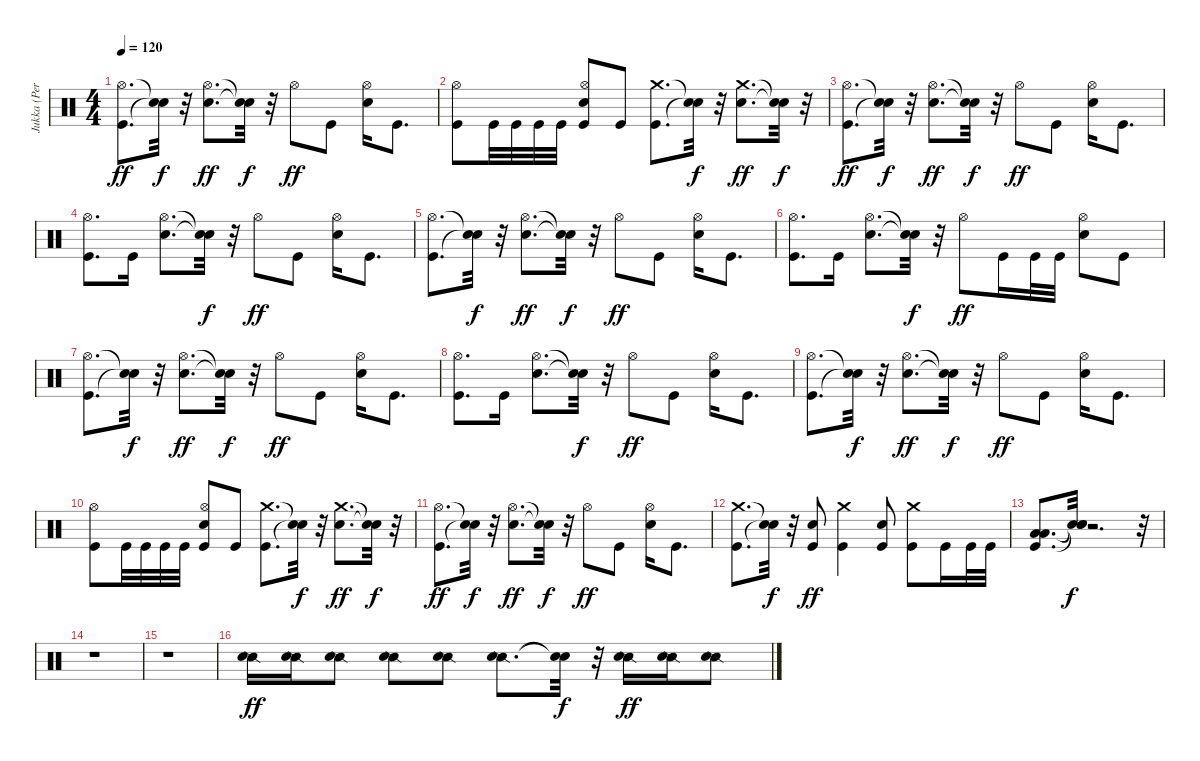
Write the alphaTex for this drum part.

\track ("Jukka (Percussion)" "Jukka (Per") {instrument percussion}
\staff {score}
\articulation defaults
\ts (4 4)
\tempo 120
\clef neutral
\ks c
("Kick (hit)" "Hi-Hat (open)").8{d dy ff} ("Snare (hit)"{t} "Snare (hit)"{t}).32{dy f} r.32 ("Electric Snare (hit)" "Hi-Hat (open)").8{d dy ff} ("Snare (hit)"{t} "Snare (hit)"{t}).32{dy f} r.32 "Hi-Hat (open)".8{dy ff} "Kick (hit)".8 ("Electric Snare (hit)" "Hi-Hat (open)").16 "Kick (hit)".8{d} |
("Kick (hit)" "Hi-Hat (open)").8 "Kick (hit)".32 "Kick (hit)".32 "Kick (hit)".32 "Kick (hit)".32 ("Kick (hit)" "Electric Snare (hit)" "Hi-Hat (open)").8 "Kick (hit)".8 ("Kick (hit)" "Crash medium (hit)").8{d} ("Snare (hit)"{t} "Snare (hit)"{t}).32{dy f} r.32 ("Electric Snare (hit)" "Crash medium (hit)").8{d dy ff} ("Snare (hit)"{t} "Snare (hit)"{t}).32{dy f} r.32 |
("Kick (hit)" "Hi-Hat (open)").8{d dy ff} ("Snare (hit)"{t} "Snare (hit)"{t}).32{dy f} r.32 ("Electric Snare (hit)" "Hi-Hat (open)").8{d dy ff} ("Snare (hit)"{t} "Snare (hit)"{t}).32{dy f} r.32 "Hi-Hat (open)".8{dy ff} "Kick (hit)".8 ("Electric Snare (hit)" "Hi-Hat (open)").16 "Kick (hit)".8{d} |
("Kick (hit)" "Hi-Hat (open)").8{d} "Kick (hit)".16 ("Electric Snare (hit)" "Hi-Hat (open)").8{d} ("Snare (hit)"{t} "Snare (hit)"{t}).32{dy f} r.32 "Hi-Hat (open)".8{dy ff} "Kick (hit)".8 ("Electric Snare (hit)" "Hi-Hat (open)").16 "Kick (hit)".8{d} |
("Kick (hit)" "Hi-Hat (open)").8{d} ("Snare (hit)"{t} "Snare (hit)"{t}).32{dy f} r.32 ("Electric Snare (hit)" "Hi-Hat (open)").8{d dy ff} ("Snare (hit)"{t} "Snare (hit)"{t}).32{dy f} r.32 "Hi-Hat (open)".8{dy ff} "Kick (hit)".8 ("Electric Snare (hit)" "Hi-Hat (open)").16 "Kick (hit)".8{d} |
("Kick (hit)" "Hi-Hat (open)").8{d} "Kick (hit)".16 ("Electric Snare (hit)" "Hi-Hat (open)").8{d} ("Snare (hit)"{t} "Snare (hit)"{t}).32{dy f} r.32 "Hi-Hat (open)".8{dy ff} "Kick (hit)".16 "Kick (hit)".32 "Kick (hit)".32 ("Electric Snare (hit)" "Hi-Hat (open)").8 "Kick (hit)".8 |
("Kick (hit)" "Hi-Hat (open)").8{d} ("Snare (hit)"{t} "Snare (hit)"{t}).32{dy f} r.32 ("Electric Snare (hit)" "Hi-Hat (open)").8{d dy ff} ("Snare (hit)"{t} "Snare (hit)"{t}).32{dy f} r.32 "Hi-Hat (open)".8{dy ff} "Kick (hit)".8 ("Electric Snare (hit)" "Hi-Hat (open)").16 "Kick (hit)".8{d} |
("Kick (hit)" "Hi-Hat (open)").8{d} "Kick (hit)".16 ("Electric Snare (hit)" "Hi-Hat (open)").8{d} ("Snare (hit)"{t} "Snare (hit)"{t}).32{dy f} r.32 "Hi-Hat (open)".8{dy ff} "Kick (hit)".8 ("Electric Snare (hit)" "Hi-Hat (open)").16 "Kick (hit)".8{d} |
("Kick (hit)" "Hi-Hat (open)").8{d} ("Snare (hit)"{t} "Snare (hit)"{t}).32{dy f} r.32 ("Electric Snare (hit)" "Hi-Hat (open)").8{d dy ff} ("Snare (hit)"{t} "Snare (hit)"{t}).32{dy f} r.32 "Hi-Hat (open)".8{dy ff} "Kick (hit)".8 ("Electric Snare (hit)" "Hi-Hat (open)").16 "Kick (hit)".8{d} |
("Kick (hit)" "Hi-Hat (open)").8 "Kick (hit)".32 "Kick (hit)".32 "Kick (hit)".32 "Kick (hit)".32 ("Kick (hit)" "Electric Snare (hit)" "Hi-Hat (open)").8 "Kick (hit)".8 ("Kick (hit)" "Crash medium (hit)").8{d} ("Snare (hit)"{t} "Snare (hit)"{t}).32{dy f} r.32 ("Electric Snare (hit)" "Crash medium (hit)").8{d dy ff} ("Snare (hit)"{t} "Snare (hit)"{t}).32{dy f} r.32 |
("Kick (hit)" "Hi-Hat (open)").8{d dy ff} ("Snare (hit)"{t} "Snare (hit)"{t}).32{dy f} r.32 ("Electric Snare (hit)" "Hi-Hat (open)").8{d dy ff} ("Snare (hit)"{t} "Snare (hit)"{t}).32{dy f} r.32 "Hi-Hat (open)".8{dy ff} "Kick (hit)".8 ("Electric Snare (hit)" "Hi-Hat (open)").16 "Kick (hit)".8{d} |
("Kick (hit)" "Crash medium (hit)").8{d} ("Snare (hit)"{t} "Snare (hit)"{t}).32{dy f} r.32 ("Kick (hit)" "Electric Snare (hit)").8{dy ff} ("Kick (hit)" "Crash medium (hit)").4 ("Kick (hit)" "Electric Snare (hit)").8 ("Kick (hit)" "Crash medium (hit)").8 "Kick (hit)".16 "Kick (hit)".32 "Kick (hit)".32 |
("Kick (hit)" "Low Floor Tom (hit)" "Low Tom (hit)").8{d} ("Snare (hit)"{t} "Snare (hit)"{t} "Snare (hit)"{t}).32{dy f} r.2{d} r.32 |
r.1 |
r.1 |
("Snare (side stick) 2" "Electric Snare (hit)").16{dy ff} ("Snare (side stick) 2" "Electric Snare (hit)").16 ("Snare (side stick) 2" "Electric Snare (hit)").8 ("Snare (side stick) 2" "Electric Snare (hit)").8 ("Snare (side stick) 2" "Electric Snare (hit)").8 ("Snare (side stick) 2" "Electric Snare (hit)").8{d} ("Snare (hit)"{t} "Snare (hit)"{t}).32{dy f} r.32 ("Snare (side stick) 2" "Electric Snare (hit)").16{dy ff} ("Snare (side stick) 2" "Electric Snare (hit)").16 ("Snare (side stick) 2" "Electric Snare (hit)").8
